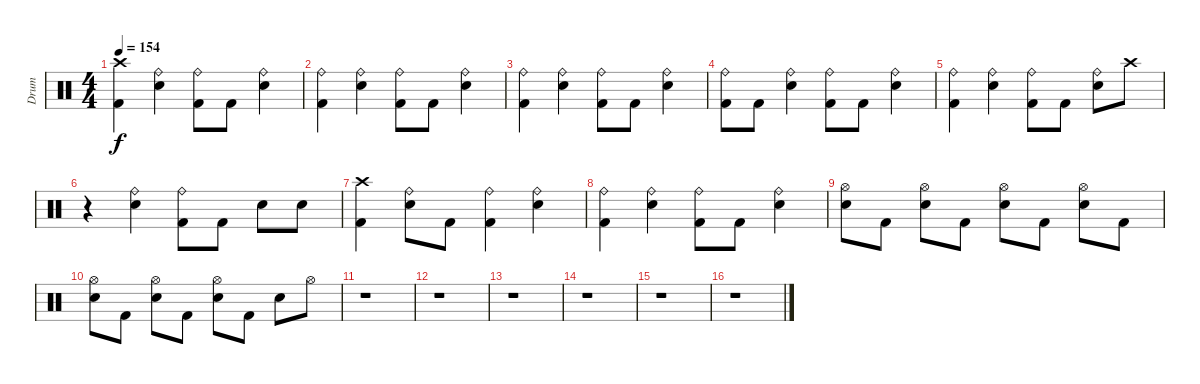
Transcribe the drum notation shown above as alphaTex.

\track ("Drum" "Drum") {instrument percussion}
\staff {score}
\articulation defaults
\ts (4 4)
\tempo 154
\clef neutral
\ks c
("Crash high (hit)" "Kick (hit) 2").4{dy f} ("Ride (bell)" "Electric Snare (hit)").4 ("Ride (bell)" "Kick (hit) 2").8 "Kick (hit) 2".8 ("Ride (bell)" "Electric Snare (hit)").4 |
("Ride (bell)" "Kick (hit) 2").4 ("Ride (bell)" "Electric Snare (hit)").4 ("Ride (bell)" "Kick (hit) 2").8 "Kick (hit) 2".8 ("Ride (bell)" "Electric Snare (hit)").4 |
("Ride (bell)" "Kick (hit) 2").4 ("Ride (bell)" "Electric Snare (hit)").4 ("Ride (bell)" "Kick (hit) 2").8 "Kick (hit) 2".8 ("Ride (bell)" "Electric Snare (hit)").4 |
("Ride (bell)" "Kick (hit) 2").8 "Kick (hit) 2".8 ("Ride (bell)" "Electric Snare (hit)").4 ("Ride (bell)" "Kick (hit) 2").8 "Kick (hit) 2".8 ("Ride (bell)" "Electric Snare (hit)").4 |
("Ride (bell)" "Kick (hit) 2").4 ("Ride (bell)" "Electric Snare (hit)").4 ("Ride (bell)" "Kick (hit) 2").8 "Kick (hit) 2".8 ("Ride (bell)" "Electric Snare (hit)").8 "Crash high (hit)".8 |
r.4 ("Ride (bell)" "Electric Snare (hit)").4 ("Ride (bell)" "Kick (hit) 2").8 "Kick (hit) 2".8 "Electric Snare (hit)".8 "Electric Snare (hit)".8 |
("Crash high (hit)" "Kick (hit) 2").4 ("Ride (bell)" "Electric Snare (hit)").8 "Kick (hit) 2".8 ("Ride (bell)" "Kick (hit) 2").4 ("Ride (bell)" "Electric Snare (hit)").4 |
("Ride (bell)" "Kick (hit) 2").4 ("Ride (bell)" "Electric Snare (hit)").4 ("Ride (bell)" "Kick (hit) 2").8 "Kick (hit) 2".8 ("Ride (bell)" "Electric Snare (hit)").4 |
("Hi-Hat (open)" "Electric Snare (hit)").8 "Kick (hit) 2".8 ("Hi-Hat (open)" "Electric Snare (hit)").8 "Kick (hit) 2".8 ("Hi-Hat (open)" "Electric Snare (hit)").8 "Kick (hit) 2".8 ("Hi-Hat (open)" "Electric Snare (hit)").8 "Kick (hit) 2".8 |
("Hi-Hat (open)" "Electric Snare (hit)").8 "Kick (hit) 2".8 ("Hi-Hat (open)" "Electric Snare (hit)").8 "Kick (hit) 2".8 ("Hi-Hat (open)" "Electric Snare (hit)").8 "Kick (hit) 2".8 "Electric Snare (hit)".8 "Hi-Hat (open)".8 |
r.1 |
r.1 |
r.1 |
r.1 |
r.1 |
r.1
